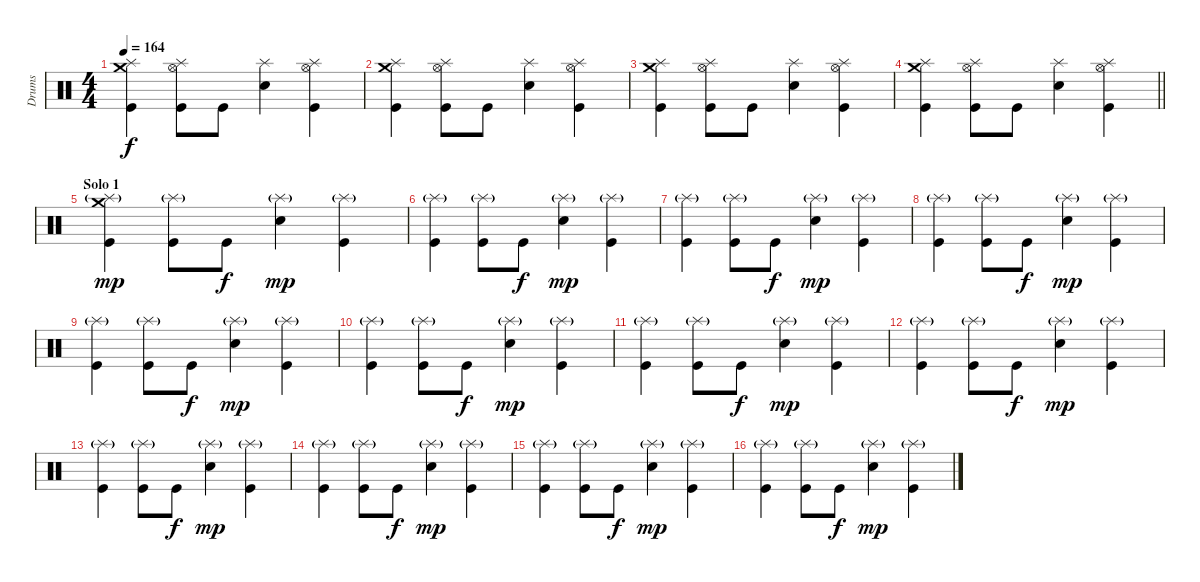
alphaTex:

\track ("Drums" "Drums") {instrument percussion}
\staff {score}
\articulation defaults
\ts (4 4)
\tempo 164
\clef neutral
\ks c
("Crash medium (hit)" "Splash (hit)" "Kick (hit)").4{dy f} ("Hi-Hat (open)" "Splash (hit)" "Kick (hit)").8 "Kick (hit)".8 ("Splash (hit)" "Electric Snare (hit)").4 ("Hi-Hat (open)" "Splash (hit)" "Kick (hit)").4 |
("Crash medium (hit)" "Splash (hit)" "Kick (hit)").4 ("Hi-Hat (open)" "Splash (hit)" "Kick (hit)").8 "Kick (hit)".8 ("Splash (hit)" "Electric Snare (hit)").4 ("Hi-Hat (open)" "Splash (hit)" "Kick (hit)").4 |
("Crash medium (hit)" "Splash (hit)" "Kick (hit)").4 ("Hi-Hat (open)" "Splash (hit)" "Kick (hit)").8 "Kick (hit)".8 ("Splash (hit)" "Electric Snare (hit)").4 ("Hi-Hat (open)" "Splash (hit)" "Kick (hit)").4 |
\barLineRight lightlight
("Crash medium (hit)" "Splash (hit)" "Kick (hit)").4 ("Hi-Hat (open)" "Splash (hit)" "Kick (hit)").8 "Kick (hit)".8 ("Splash (hit)" "Electric Snare (hit)").4 ("Hi-Hat (open)" "Splash (hit)" "Kick (hit)").4 |
\section ("" "Solo 1")
("Crash medium (hit)" "Splash (hit)"{g} "Kick (hit)").4{dy mp} ("Splash (hit)"{g} "Kick (hit)").8 "Kick (hit)".8{dy f} ("Splash (hit)"{g} "Electric Snare (hit)").4{dy mp} ("Splash (hit)"{g} "Kick (hit)").4 |
("Splash (hit)"{g} "Kick (hit)").4 ("Splash (hit)"{g} "Kick (hit)").8 "Kick (hit)".8{dy f} ("Splash (hit)"{g} "Electric Snare (hit)").4{dy mp} ("Splash (hit)"{g} "Kick (hit)").4 |
("Splash (hit)"{g} "Kick (hit)").4 ("Splash (hit)"{g} "Kick (hit)").8 "Kick (hit)".8{dy f} ("Splash (hit)"{g} "Electric Snare (hit)").4{dy mp} ("Splash (hit)"{g} "Kick (hit)").4 |
("Splash (hit)"{g} "Kick (hit)").4 ("Splash (hit)"{g} "Kick (hit)").8 "Kick (hit)".8{dy f} ("Splash (hit)"{g} "Electric Snare (hit)").4{dy mp} ("Splash (hit)"{g} "Kick (hit)").4 |
("Splash (hit)"{g} "Kick (hit)").4 ("Splash (hit)"{g} "Kick (hit)").8 "Kick (hit)".8{dy f} ("Splash (hit)"{g} "Electric Snare (hit)").4{dy mp} ("Splash (hit)"{g} "Kick (hit)").4 |
("Splash (hit)"{g} "Kick (hit)").4 ("Splash (hit)"{g} "Kick (hit)").8 "Kick (hit)".8{dy f} ("Splash (hit)"{g} "Electric Snare (hit)").4{dy mp} ("Splash (hit)"{g} "Kick (hit)").4 |
("Splash (hit)"{g} "Kick (hit)").4 ("Splash (hit)"{g} "Kick (hit)").8 "Kick (hit)".8{dy f} ("Splash (hit)"{g} "Electric Snare (hit)").4{dy mp} ("Splash (hit)"{g} "Kick (hit)").4 |
("Splash (hit)"{g} "Kick (hit)").4 ("Splash (hit)"{g} "Kick (hit)").8 "Kick (hit)".8{dy f} ("Splash (hit)"{g} "Electric Snare (hit)").4{dy mp} ("Splash (hit)"{g} "Kick (hit)").4 |
("Splash (hit)"{g} "Kick (hit)").4 ("Splash (hit)"{g} "Kick (hit)").8 "Kick (hit)".8{dy f} ("Splash (hit)"{g} "Electric Snare (hit)").4{dy mp} ("Splash (hit)"{g} "Kick (hit)").4 |
("Splash (hit)"{g} "Kick (hit)").4 ("Splash (hit)"{g} "Kick (hit)").8 "Kick (hit)".8{dy f} ("Splash (hit)"{g} "Electric Snare (hit)").4{dy mp} ("Splash (hit)"{g} "Kick (hit)").4 |
("Splash (hit)"{g} "Kick (hit)").4 ("Splash (hit)"{g} "Kick (hit)").8 "Kick (hit)".8{dy f} ("Splash (hit)"{g} "Electric Snare (hit)").4{dy mp} ("Splash (hit)"{g} "Kick (hit)").4 |
("Splash (hit)"{g} "Kick (hit)").4 ("Splash (hit)"{g} "Kick (hit)").8 "Kick (hit)".8{dy f} ("Splash (hit)"{g} "Electric Snare (hit)").4{dy mp} ("Splash (hit)"{g} "Kick (hit)").4
